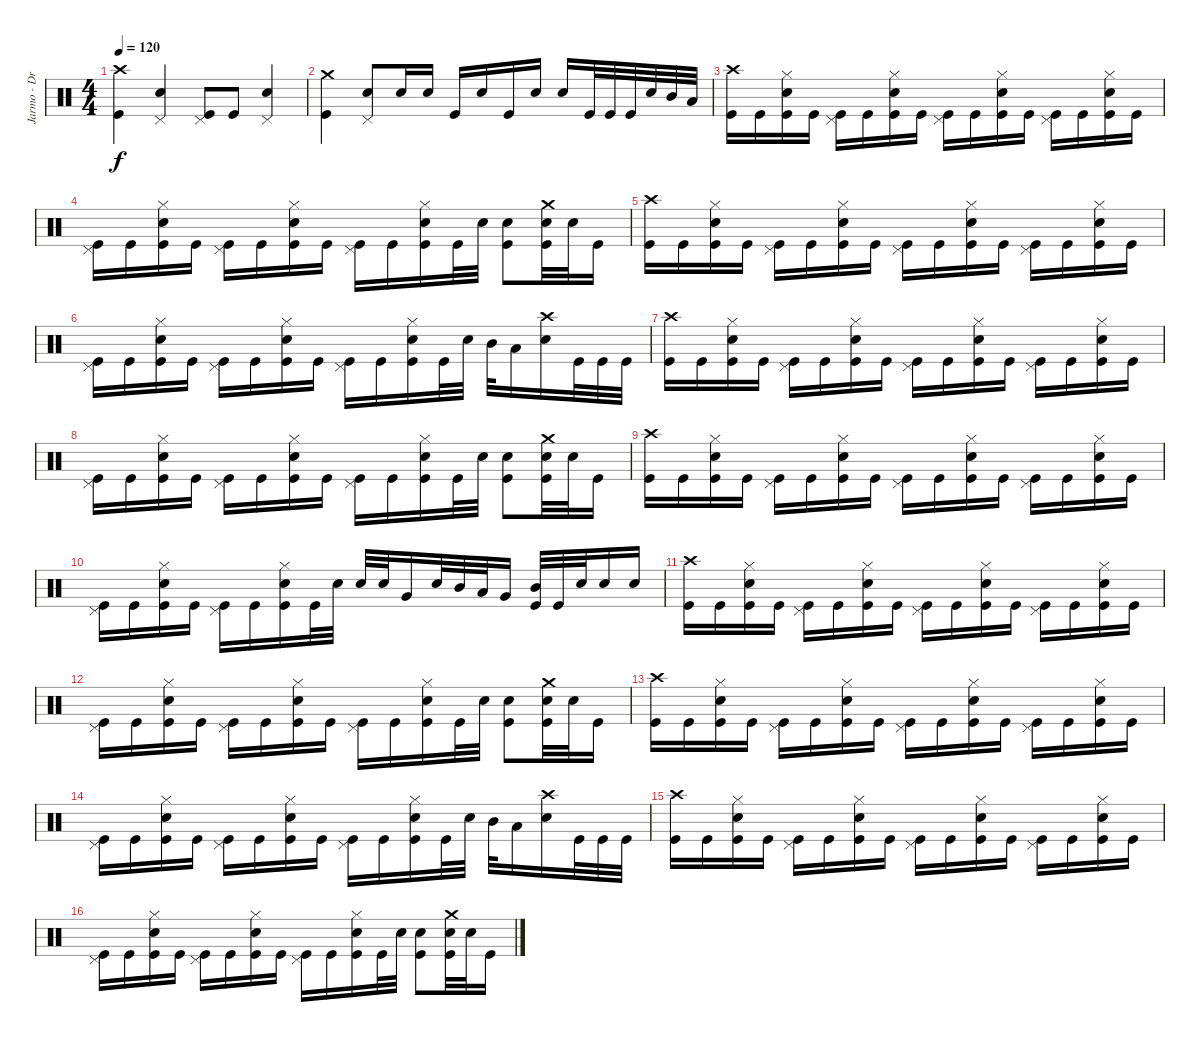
\track ("Jarmo - Drums" "Jarmo - Dr") {instrument percussion}
\staff {score}
\articulation defaults
\ts (4 4)
\tempo 120
\clef neutral
\ks c
("Kick (hit)" "Crash high (hit)").4{dy f} ("Electric Snare (hit)" "Pedal Hi-Hat (hit)").4 ("Kick (hit)" "Pedal Hi-Hat (hit)").8 "Kick (hit)".8 ("Electric Snare (hit)" "Pedal Hi-Hat (hit)").4 |
("Kick (hit)" "Crash medium (hit)").4 ("Electric Snare (hit)" "Pedal Hi-Hat (hit)").8 "Electric Snare (hit)".16 "Electric Snare (hit)".16 "Kick (hit)".16 "Electric Snare (hit)".16 "Kick (hit)".16 "Electric Snare (hit)".16 "Electric Snare (hit)".16 "Kick (hit)".32 "Kick (hit)".32 "Kick (hit)".32 "Electric Snare (hit)".32 "Mid Tom (hit)".32 "Low Tom (hit)".32 |
("Kick (hit)" "Crash high (hit)").16 "Kick (hit)".16 ("Kick (hit)" "Electric Snare (hit)" "Hi-Hat (closed)").16 "Kick (hit)".16 ("Kick (hit)" "Pedal Hi-Hat (hit)").16 "Kick (hit)".16 ("Kick (hit)" "Electric Snare (hit)" "Hi-Hat (closed)").16 "Kick (hit)".16 ("Kick (hit)" "Pedal Hi-Hat (hit)").16 "Kick (hit)".16 ("Kick (hit)" "Electric Snare (hit)" "Hi-Hat (closed)").16 "Kick (hit)".16 ("Kick (hit)" "Pedal Hi-Hat (hit)").16 "Kick (hit)".16 ("Kick (hit)" "Electric Snare (hit)" "Hi-Hat (closed)").16 "Kick (hit)".16 |
("Kick (hit)" "Pedal Hi-Hat (hit)").16 "Kick (hit)".16 ("Kick (hit)" "Electric Snare (hit)" "Hi-Hat (closed)").16 "Kick (hit)".16 ("Kick (hit)" "Pedal Hi-Hat (hit)").16 "Kick (hit)".16 ("Kick (hit)" "Electric Snare (hit)" "Hi-Hat (closed)").16 "Kick (hit)".16 ("Kick (hit)" "Pedal Hi-Hat (hit)").16 "Kick (hit)".16 ("Kick (hit)" "Electric Snare (hit)" "Hi-Hat (closed)").16 "Kick (hit)".32 "Electric Snare (hit)".32 ("Kick (hit)" "Electric Snare (hit)").8 ("Kick (hit)" "Electric Snare (hit)" "Crash medium (hit)").32 "Electric Snare (hit)".32 "Kick (hit)".16 |
("Kick (hit)" "Crash high (hit)").16 "Kick (hit)".16 ("Kick (hit)" "Electric Snare (hit)" "Hi-Hat (closed)").16 "Kick (hit)".16 ("Kick (hit)" "Pedal Hi-Hat (hit)").16 "Kick (hit)".16 ("Kick (hit)" "Electric Snare (hit)" "Hi-Hat (closed)").16 "Kick (hit)".16 ("Kick (hit)" "Pedal Hi-Hat (hit)").16 "Kick (hit)".16 ("Kick (hit)" "Electric Snare (hit)" "Hi-Hat (closed)").16 "Kick (hit)".16 ("Kick (hit)" "Pedal Hi-Hat (hit)").16 "Kick (hit)".16 ("Kick (hit)" "Electric Snare (hit)" "Hi-Hat (closed)").16 "Kick (hit)".16 |
("Kick (hit)" "Pedal Hi-Hat (hit)").16 "Kick (hit)".16 ("Kick (hit)" "Electric Snare (hit)" "Hi-Hat (closed)").16 "Kick (hit)".16 ("Kick (hit)" "Pedal Hi-Hat (hit)").16 "Kick (hit)".16 ("Kick (hit)" "Electric Snare (hit)" "Hi-Hat (closed)").16 "Kick (hit)".16 ("Kick (hit)" "Pedal Hi-Hat (hit)").16 "Kick (hit)".16 ("Kick (hit)" "Electric Snare (hit)" "Hi-Hat (closed)").16 "Kick (hit)".32 "Electric Snare (hit)".32 "Mid Tom (hit)".32 "Low Tom (hit)".16 ("Crash high (hit)" "Electric Snare (hit)").16 "Kick (hit)".32 "Kick (hit)".32 "Kick (hit)".32 |
("Kick (hit)" "Crash high (hit)").16 "Kick (hit)".16 ("Kick (hit)" "Electric Snare (hit)" "Hi-Hat (closed)").16 "Kick (hit)".16 ("Kick (hit)" "Pedal Hi-Hat (hit)").16 "Kick (hit)".16 ("Kick (hit)" "Electric Snare (hit)" "Hi-Hat (closed)").16 "Kick (hit)".16 ("Kick (hit)" "Pedal Hi-Hat (hit)").16 "Kick (hit)".16 ("Kick (hit)" "Electric Snare (hit)" "Hi-Hat (closed)").16 "Kick (hit)".16 ("Kick (hit)" "Pedal Hi-Hat (hit)").16 "Kick (hit)".16 ("Kick (hit)" "Electric Snare (hit)" "Hi-Hat (closed)").16 "Kick (hit)".16 |
("Kick (hit)" "Pedal Hi-Hat (hit)").16 "Kick (hit)".16 ("Kick (hit)" "Electric Snare (hit)" "Hi-Hat (closed)").16 "Kick (hit)".16 ("Kick (hit)" "Pedal Hi-Hat (hit)").16 "Kick (hit)".16 ("Kick (hit)" "Electric Snare (hit)" "Hi-Hat (closed)").16 "Kick (hit)".16 ("Kick (hit)" "Pedal Hi-Hat (hit)").16 "Kick (hit)".16 ("Kick (hit)" "Electric Snare (hit)" "Hi-Hat (closed)").16 "Kick (hit)".32 "Electric Snare (hit)".32 ("Kick (hit)" "Electric Snare (hit)").8 ("Kick (hit)" "Electric Snare (hit)" "Crash medium (hit)").32 "Electric Snare (hit)".32 "Kick (hit)".16 |
("Kick (hit)" "Crash high (hit)").16 "Kick (hit)".16 ("Kick (hit)" "Electric Snare (hit)" "Hi-Hat (closed)").16 "Kick (hit)".16 ("Kick (hit)" "Pedal Hi-Hat (hit)").16 "Kick (hit)".16 ("Kick (hit)" "Electric Snare (hit)" "Hi-Hat (closed)").16 "Kick (hit)".16 ("Kick (hit)" "Pedal Hi-Hat (hit)").16 "Kick (hit)".16 ("Kick (hit)" "Electric Snare (hit)" "Hi-Hat (closed)").16 "Kick (hit)".16 ("Kick (hit)" "Pedal Hi-Hat (hit)").16 "Kick (hit)".16 ("Kick (hit)" "Electric Snare (hit)" "Hi-Hat (closed)").16 "Kick (hit)".16 |
("Kick (hit)" "Pedal Hi-Hat (hit)").16 "Kick (hit)".16 ("Kick (hit)" "Electric Snare (hit)" "Hi-Hat (closed)").16 "Kick (hit)".16 ("Kick (hit)" "Pedal Hi-Hat (hit)").16 "Kick (hit)".16 ("Kick (hit)" "Electric Snare (hit)" "Hi-Hat (closed)").16 "Kick (hit)".32 "Electric Snare (hit)".32 "Electric Snare (hit)".32 "Electric Snare (hit)".32 "Very Low Tom (hit)".16 "Electric Snare (hit)".32 "Mid Tom (hit)".32 "Low Tom (hit)".32 "Very Low Tom (hit)".16 ("Kick (hit)" "Mid Tom (hit)").32 "Kick (hit)".32 "Electric Snare (hit)".32 "Electric Snare (hit)".16 "Electric Snare (hit)".16 |
("Kick (hit)" "Crash high (hit)").16 "Kick (hit)".16 ("Kick (hit)" "Electric Snare (hit)" "Hi-Hat (closed)").16 "Kick (hit)".16 ("Kick (hit)" "Pedal Hi-Hat (hit)").16 "Kick (hit)".16 ("Kick (hit)" "Electric Snare (hit)" "Hi-Hat (closed)").16 "Kick (hit)".16 ("Kick (hit)" "Pedal Hi-Hat (hit)").16 "Kick (hit)".16 ("Kick (hit)" "Electric Snare (hit)" "Hi-Hat (closed)").16 "Kick (hit)".16 ("Kick (hit)" "Pedal Hi-Hat (hit)").16 "Kick (hit)".16 ("Kick (hit)" "Electric Snare (hit)" "Hi-Hat (closed)").16 "Kick (hit)".16 |
("Kick (hit)" "Pedal Hi-Hat (hit)").16 "Kick (hit)".16 ("Kick (hit)" "Electric Snare (hit)" "Hi-Hat (closed)").16 "Kick (hit)".16 ("Kick (hit)" "Pedal Hi-Hat (hit)").16 "Kick (hit)".16 ("Kick (hit)" "Electric Snare (hit)" "Hi-Hat (closed)").16 "Kick (hit)".16 ("Kick (hit)" "Pedal Hi-Hat (hit)").16 "Kick (hit)".16 ("Kick (hit)" "Electric Snare (hit)" "Hi-Hat (closed)").16 "Kick (hit)".32 "Electric Snare (hit)".32 ("Kick (hit)" "Electric Snare (hit)").8 ("Kick (hit)" "Electric Snare (hit)" "Crash medium (hit)").32 "Electric Snare (hit)".32 "Kick (hit)".16 |
("Kick (hit)" "Crash high (hit)").16 "Kick (hit)".16 ("Kick (hit)" "Electric Snare (hit)" "Hi-Hat (closed)").16 "Kick (hit)".16 ("Kick (hit)" "Pedal Hi-Hat (hit)").16 "Kick (hit)".16 ("Kick (hit)" "Electric Snare (hit)" "Hi-Hat (closed)").16 "Kick (hit)".16 ("Kick (hit)" "Pedal Hi-Hat (hit)").16 "Kick (hit)".16 ("Kick (hit)" "Electric Snare (hit)" "Hi-Hat (closed)").16 "Kick (hit)".16 ("Kick (hit)" "Pedal Hi-Hat (hit)").16 "Kick (hit)".16 ("Kick (hit)" "Electric Snare (hit)" "Hi-Hat (closed)").16 "Kick (hit)".16 |
("Kick (hit)" "Pedal Hi-Hat (hit)").16 "Kick (hit)".16 ("Kick (hit)" "Electric Snare (hit)" "Hi-Hat (closed)").16 "Kick (hit)".16 ("Kick (hit)" "Pedal Hi-Hat (hit)").16 "Kick (hit)".16 ("Kick (hit)" "Electric Snare (hit)" "Hi-Hat (closed)").16 "Kick (hit)".16 ("Kick (hit)" "Pedal Hi-Hat (hit)").16 "Kick (hit)".16 ("Kick (hit)" "Electric Snare (hit)" "Hi-Hat (closed)").16 "Kick (hit)".32 "Electric Snare (hit)".32 "Mid Tom (hit)".32 "Low Tom (hit)".16 ("Crash high (hit)" "Electric Snare (hit)").16 "Kick (hit)".32 "Kick (hit)".32 "Kick (hit)".32 |
("Kick (hit)" "Crash high (hit)").16 "Kick (hit)".16 ("Kick (hit)" "Electric Snare (hit)" "Hi-Hat (closed)").16 "Kick (hit)".16 ("Kick (hit)" "Pedal Hi-Hat (hit)").16 "Kick (hit)".16 ("Kick (hit)" "Electric Snare (hit)" "Hi-Hat (closed)").16 "Kick (hit)".16 ("Kick (hit)" "Pedal Hi-Hat (hit)").16 "Kick (hit)".16 ("Kick (hit)" "Electric Snare (hit)" "Hi-Hat (closed)").16 "Kick (hit)".16 ("Kick (hit)" "Pedal Hi-Hat (hit)").16 "Kick (hit)".16 ("Kick (hit)" "Electric Snare (hit)" "Hi-Hat (closed)").16 "Kick (hit)".16 |
("Kick (hit)" "Pedal Hi-Hat (hit)").16 "Kick (hit)".16 ("Kick (hit)" "Electric Snare (hit)" "Hi-Hat (closed)").16 "Kick (hit)".16 ("Kick (hit)" "Pedal Hi-Hat (hit)").16 "Kick (hit)".16 ("Kick (hit)" "Electric Snare (hit)" "Hi-Hat (closed)").16 "Kick (hit)".16 ("Kick (hit)" "Pedal Hi-Hat (hit)").16 "Kick (hit)".16 ("Kick (hit)" "Electric Snare (hit)" "Hi-Hat (closed)").16 "Kick (hit)".32 "Electric Snare (hit)".32 ("Kick (hit)" "Electric Snare (hit)").8 ("Kick (hit)" "Electric Snare (hit)" "Crash medium (hit)").32 "Electric Snare (hit)".32 "Kick (hit)".16
